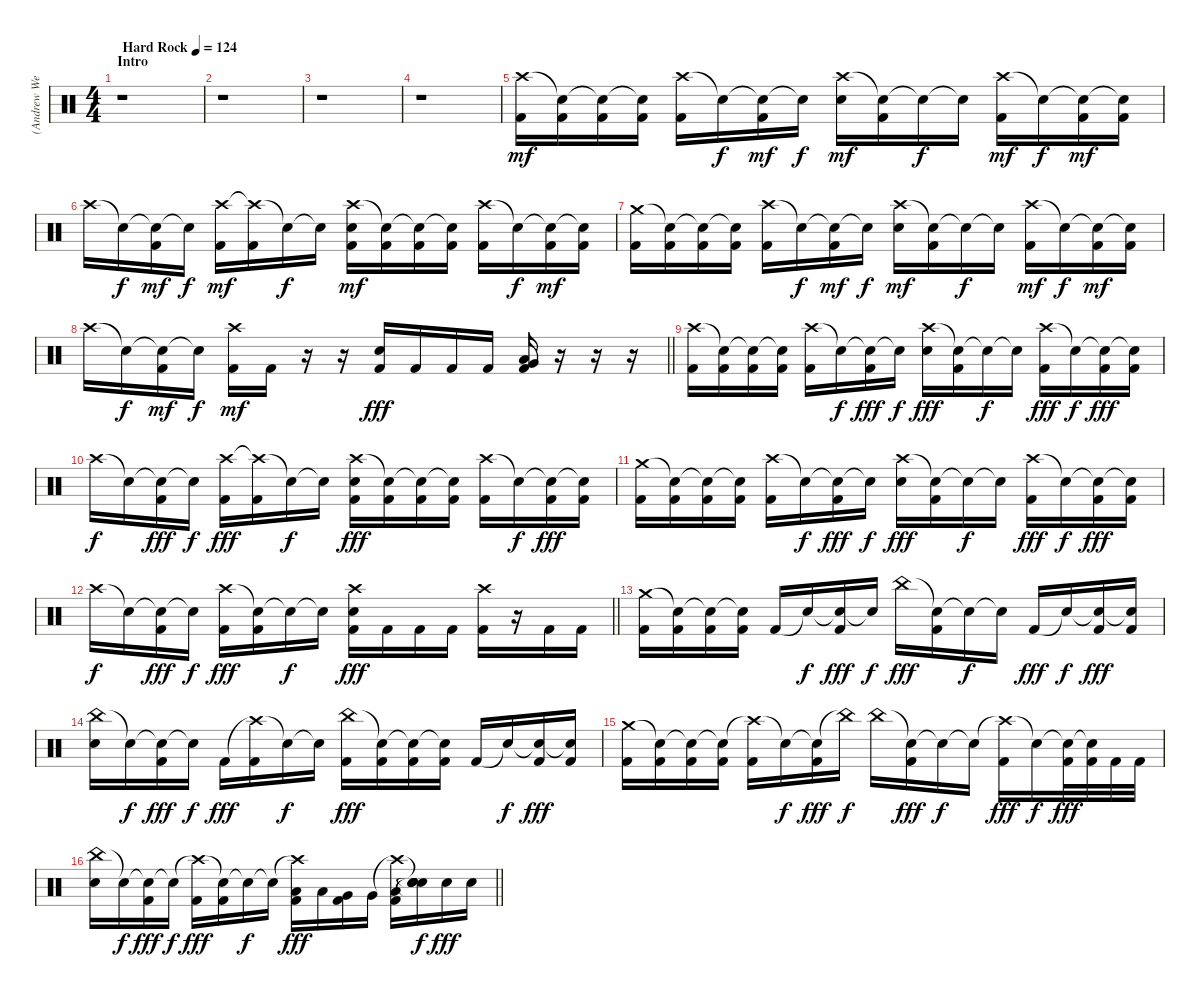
\track ("(Andrew Wetzel) Drums" "(Andrew We") {instrument percussion}
\staff {score}
\articulation defaults
\ts (4 4)
\section ("" "Intro")
\tempo (124 "Hard Rock")
\clef neutral
\ks c
r.1{dy mf} |
r.1 |
r.1 |
r.1{volume 5} |
("Crash high (hit)" "Kick (hit) 2").16{volume 14} ("Snare (hit)"{t} "Kick (hit) 2").16 ("Snare (hit)"{t} "Kick (hit) 2").16 ("Snare (hit)"{t} "Kick (hit) 2").16 ("Crash high (hit)" "Kick (hit) 2").16 "Snare (hit)"{t}.16{dy f} ("Snare (hit)"{t} "Kick (hit) 2").16{dy mf} "Snare (hit)"{t}.16{dy f} ("Crash high (hit)" "Electric Snare (hit)").16{dy mf} ("Snare (hit)"{t} "Kick (hit) 2").16 "Snare (hit)"{t}.16{dy f} "Snare (hit)"{t}.16 ("Crash high (hit)" "Kick (hit) 2").16{dy mf} "Snare (hit)"{t}.16{dy f} ("Snare (hit)"{t} "Kick (hit) 2").16{dy mf} ("Snare (hit)"{t} "Kick (hit) 2").16 |
"Crash high (hit)".16 "Snare (hit)"{t}.16{dy f} ("Snare (hit)"{t} "Kick (hit) 2").16{dy mf} "Snare (hit)"{t}.16{dy f} ("Crash high (hit)" "Kick (hit) 2").16{dy mf} ("Crash high (hit)"{t} "Kick (hit) 2").16 "Snare (hit)"{t}.16{dy f} "Snare (hit)"{t}.16 ("Crash high (hit)" "Electric Snare (hit)" "Kick (hit) 2").16{dy mf} ("Snare (hit)"{t} "Kick (hit) 2").16 ("Snare (hit)"{t} "Kick (hit) 2").16 ("Snare (hit)"{t} "Kick (hit) 2").16 ("Crash high (hit)" "Kick (hit) 2").16 "Snare (hit)"{t}.16{dy f} ("Snare (hit)"{t} "Kick (hit) 2").16{dy mf} ("Snare (hit)"{t} "Kick (hit) 2").16 |
("Crash medium (hit)" "Kick (hit) 2").16 ("Snare (hit)"{t} "Kick (hit) 2").16 ("Snare (hit)"{t} "Kick (hit) 2").16 ("Snare (hit)"{t} "Kick (hit) 2").16 ("Crash high (hit)" "Kick (hit) 2").16 "Snare (hit)"{t}.16{dy f} ("Snare (hit)"{t} "Kick (hit) 2").16{dy mf} "Snare (hit)"{t}.16{dy f} ("Crash high (hit)" "Electric Snare (hit)").16{dy mf} ("Snare (hit)"{t} "Kick (hit) 2").16 "Snare (hit)"{t}.16{dy f} "Snare (hit)"{t}.16 ("Crash high (hit)" "Kick (hit) 2").16{dy mf} "Snare (hit)"{t}.16{dy f} ("Snare (hit)"{t} "Kick (hit) 2").16{dy mf} ("Snare (hit)"{t} "Kick (hit) 2").16 |
\barLineRight lightlight "Crash high (hit)".16 "Snare (hit)"{t}.16{dy f}
("Snare (hit)"{t} "Kick (hit) 2").16{dy mf} "Snare (hit)"{t}.16{dy f} ("Crash high (hit)" "Kick (hit) 2").16{dy mf} "Kick (hit) 2".16 r.16 r.16 ("Electric Snare (hit)" "Kick (hit) 2").16{dy fff} "Kick (hit) 2".16 "Kick (hit) 2".16 "Kick (hit) 2".16 ("Very Low Tom (hit)" "Low Floor Tom (hit)" "Kick (hit) 2").16 r.16 r.16 r.16 |
("Crash high (hit)" "Kick (hit) 2").16 ("Snare (hit)"{t} "Kick (hit) 2").16 ("Snare (hit)"{t} "Kick (hit) 2").16 ("Snare (hit)"{t} "Kick (hit) 2").16 ("Crash high (hit)" "Kick (hit) 2").16 "Snare (hit)"{t}.16{dy f} ("Snare (hit)"{t} "Kick (hit) 2").16{dy fff} "Snare (hit)"{t}.16{dy f} ("Crash high (hit)" "Electric Snare (hit)").16{dy fff} ("Snare (hit)"{t} "Kick (hit) 2").16 "Snare (hit)"{t}.16{dy f} "Snare (hit)"{t}.16 ("Crash high (hit)" "Kick (hit) 2").16{dy fff} "Snare (hit)"{t}.16{dy f} ("Snare (hit)"{t} "Kick (hit) 2").16{dy fff} ("Snare (hit)"{t} "Kick (hit) 2").16 |
"Crash high (hit)".16{dy f} "Snare (hit)"{t}.16 ("Snare (hit)"{t} "Kick (hit) 2").16{dy fff} "Snare (hit)"{t}.16{dy f} ("Crash high (hit)" "Kick (hit) 2").16{dy fff} ("Crash high (hit)"{t} "Kick (hit) 2").16 "Snare (hit)"{t}.16{dy f} "Snare (hit)"{t}.16 ("Crash high (hit)" "Electric Snare (hit)" "Kick (hit) 2").16{dy fff} ("Snare (hit)"{t} "Kick (hit) 2").16 ("Snare (hit)"{t} "Kick (hit) 2").16 ("Snare (hit)"{t} "Kick (hit) 2").16 ("Crash high (hit)" "Kick (hit) 2").16 "Snare (hit)"{t}.16{dy f} ("Snare (hit)"{t} "Kick (hit) 2").16{dy fff} ("Snare (hit)"{t} "Kick (hit) 2").16 |
("Crash medium (hit)" "Kick (hit) 2").16 ("Snare (hit)"{t} "Kick (hit) 2").16 ("Snare (hit)"{t} "Kick (hit) 2").16 ("Snare (hit)"{t} "Kick (hit) 2").16 ("Crash high (hit)" "Kick (hit) 2").16 "Snare (hit)"{t}.16{dy f} ("Snare (hit)"{t} "Kick (hit) 2").16{dy fff} "Snare (hit)"{t}.16{dy f} ("Crash high (hit)" "Electric Snare (hit)").16{dy fff} ("Snare (hit)"{t} "Kick (hit) 2").16 "Snare (hit)"{t}.16{dy f} "Snare (hit)"{t}.16 ("Crash high (hit)" "Kick (hit) 2").16{dy fff} "Snare (hit)"{t}.16{dy f} ("Snare (hit)"{t} "Kick (hit) 2").16{dy fff} ("Snare (hit)"{t} "Kick (hit) 2").16 |
\barLineRight lightlight "Crash high (hit)".16{dy f} "Snare (hit)"{t}.16
("Snare (hit)"{t} "Kick (hit) 2").16{dy fff} "Snare (hit)"{t}.16{dy f} ("Crash high (hit)" "Kick (hit) 2").16{dy fff} ("Snare (hit)"{t} "Kick (hit) 2").16 "Snare (hit)"{t}.16{dy f} "Snare (hit)"{t}.16 ("Crash high (hit)" "Electric Snare (hit)" "Kick (hit) 2").16{dy fff} "Kick (hit) 2".16 "Kick (hit) 2".16 "Kick (hit) 2".16 ("Crash high (hit)" "Kick (hit) 2").16 r.16 "Kick (hit) 2".16 "Kick (hit) 2".16 |
("Crash medium (hit)" "Kick (hit) 2").16 ("Snare (hit)"{t} "Kick (hit) 2").16 ("Snare (hit)"{t} "Kick (hit) 2").16 ("Snare (hit)"{t} "Kick (hit) 2").16 "Kick (hit) 2".16 "Snare (hit)"{t}.16{dy f} ("Snare (hit)"{t} "Kick (hit) 2").16{dy fff} "Snare (hit)"{t}.16{dy f} "China (hit)".16{dy fff} ("Snare (hit)"{t} "Kick (hit) 2").16 "Snare (hit)"{t}.16{dy f} "Snare (hit)"{t}.16 "Kick (hit) 2".16{dy fff} "Snare (hit)"{t}.16{dy f} ("Snare (hit)"{t} "Kick (hit) 2").16{dy fff} ("Snare (hit)"{t} "Kick (hit) 2").16 |
("China (hit)" "Electric Snare (hit)").16 "Snare (hit)"{t}.16{dy f} ("Snare (hit)"{t} "Kick (hit) 2").16{dy fff} "Snare (hit)"{t}.16{dy f} "Kick (hit) 2".16{dy fff} ("Crash high (hit)"{t} "Kick (hit) 2").16 "Snare (hit)"{t}.16{dy f} "Snare (hit)"{t}.16 ("China (hit)" "Kick (hit) 2").16{dy fff} ("Snare (hit)"{t} "Kick (hit) 2").16 ("Snare (hit)"{t} "Kick (hit) 2").16 ("Snare (hit)"{t} "Kick (hit) 2").16 "Kick (hit) 2".16 "Snare (hit)"{t}.16{dy f} ("Snare (hit)"{t} "Kick (hit) 2").16{dy fff} ("Snare (hit)"{t} "Kick (hit) 2").16 |
("Crash medium (hit)" "Kick (hit) 2").16 ("Snare (hit)"{t} "Kick (hit) 2").16 ("Snare (hit)"{t} "Kick (hit) 2").16 ("Snare (hit)"{t} "Kick (hit) 2").16 ("Crash high (hit)"{t} "Kick (hit) 2").16 "Snare (hit)"{t}.16{dy f} ("Snare (hit)"{t} "Kick (hit) 2").16{dy fff} "China (hit)"{t}.16{dy f} "China (hit)".16 ("Snare (hit)"{t} "Kick (hit) 2").16{dy fff} "Snare (hit)"{t}.16{dy f} "Snare (hit)"{t}.16 ("Crash high (hit)"{t} "Kick (hit) 2").16{dy fff} "Snare (hit)"{t}.16{dy f} ("Snare (hit)"{t} "Kick (hit) 2").32{dy fff} ("Snare (hit)"{t} "Kick (hit) 2").32 "Kick (hit) 2".32 "Kick (hit) 2".32 |
\barLineRight lightlight
("China (hit)" "Electric Snare (hit)").16 "Snare (hit)"{t}.16{dy f} ("Snare (hit)"{t} "Kick (hit) 2").16{dy fff} "Snare (hit)"{t}.16{dy f} ("Crash high (hit)"{t} "Kick (hit) 2").16{dy fff} ("Snare (hit)"{t} "Kick (hit) 2").16 "Snare (hit)"{t}.16{dy f} "Snare (hit)"{t}.16 ("Crash high (hit)"{t} "Low Tom (hit)" "Kick (hit) 2").16{dy fff} "Low Tom (hit)".16 ("Very Low Tom (hit)" "Kick (hit) 2").16 "Very Low Tom (hit)".16 ("Crash high (hit)"{t} "Low Floor Tom (hit)" "Kick (hit) 2").16 ("Snare (hit)"{t} "Snare (hit)"{t} "Snare (hit)"{t} "Snare (hit)").16{dy f} "Electric Snare (hit)".16{dy fff} "Electric Snare (hit)".16
